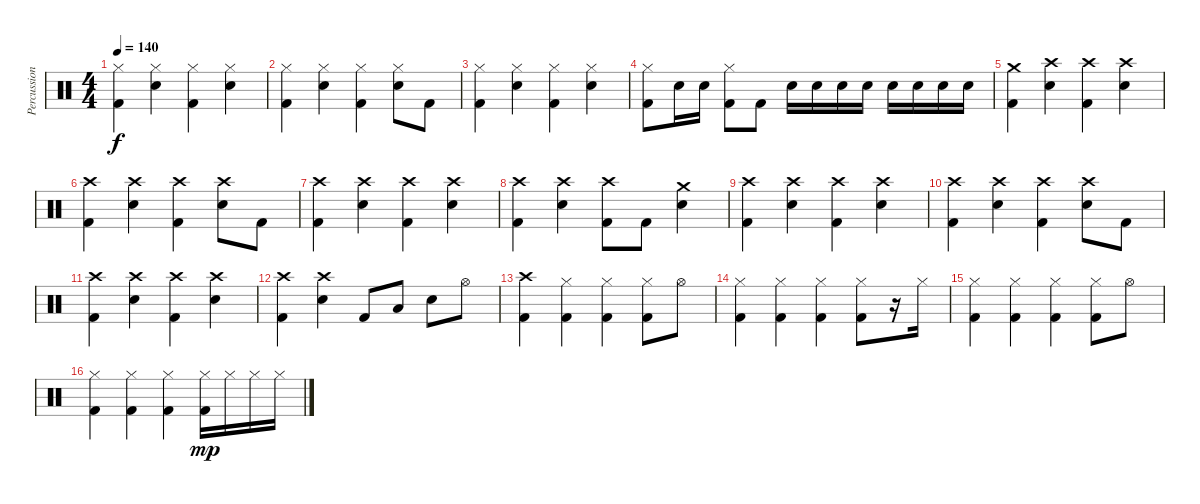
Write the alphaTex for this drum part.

\track ("Percussions" "Percussion") {instrument percussion}
\staff {score}
\articulation defaults
\ts (4 4)
\tempo 140
\clef neutral
\ks c
("Hi-Hat (closed)" "Kick (hit) 2").4{dy f} ("Hi-Hat (closed)" "Electric Snare (hit)").4 ("Hi-Hat (closed)" "Kick (hit) 2").4 ("Hi-Hat (closed)" "Electric Snare (hit)").4 |
("Hi-Hat (closed)" "Kick (hit) 2").4 ("Hi-Hat (closed)" "Electric Snare (hit)").4 ("Hi-Hat (closed)" "Kick (hit) 2").4 ("Hi-Hat (closed)" "Electric Snare (hit)").8 "Kick (hit) 2".8 |
("Hi-Hat (closed)" "Kick (hit) 2").4 ("Hi-Hat (closed)" "Electric Snare (hit)").4 ("Hi-Hat (closed)" "Kick (hit) 2").4 ("Hi-Hat (closed)" "Electric Snare (hit)").4 |
("Hi-Hat (closed)" "Kick (hit) 2").8 "Electric Snare (hit)".16 "Electric Snare (hit)".16 ("Hi-Hat (closed)" "Kick (hit) 2").8 "Kick (hit) 2".8 "Electric Snare (hit)".16 "Electric Snare (hit)".16 "Electric Snare (hit)".16 "Electric Snare (hit)".16 "Electric Snare (hit)".16 "Electric Snare (hit)".16 "Electric Snare (hit)".16 "Electric Snare (hit)".16 |
("Crash medium (hit)" "Kick (hit) 2").4 ("Crash high (hit)" "Electric Snare (hit)").4 ("Crash high (hit)" "Kick (hit) 2").4 ("Crash high (hit)" "Electric Snare (hit)").4 |
("Crash high (hit)" "Kick (hit) 2").4 ("Crash high (hit)" "Electric Snare (hit)").4 ("Crash high (hit)" "Kick (hit) 2").4 ("Crash high (hit)" "Electric Snare (hit)").8 "Kick (hit) 2".8 |
("Crash high (hit)" "Kick (hit) 2").4 ("Crash high (hit)" "Electric Snare (hit)").4 ("Crash high (hit)" "Kick (hit) 2").4 ("Crash high (hit)" "Electric Snare (hit)").4 |
("Crash high (hit)" "Kick (hit) 2").4 ("Crash high (hit)" "Electric Snare (hit)").4 ("Crash high (hit)" "Kick (hit) 2").8 "Kick (hit) 2".8 ("Crash medium (hit)" "Electric Snare (hit)").4 |
("Crash high (hit)" "Kick (hit) 2").4 ("Crash high (hit)" "Electric Snare (hit)").4 ("Crash high (hit)" "Kick (hit) 2").4 ("Crash high (hit)" "Electric Snare (hit)").4 |
("Crash high (hit)" "Kick (hit) 2").4 ("Crash high (hit)" "Electric Snare (hit)").4 ("Crash high (hit)" "Kick (hit) 2").4 ("Crash high (hit)" "Electric Snare (hit)").8 "Kick (hit) 2".8 |
("Crash high (hit)" "Kick (hit) 2").4 ("Crash high (hit)" "Electric Snare (hit)").4 ("Crash high (hit)" "Kick (hit) 2").4 ("Crash high (hit)" "Electric Snare (hit)").4 |
("Crash high (hit)" "Kick (hit) 2").4 ("Crash high (hit)" "Electric Snare (hit)").4 "Kick (hit) 2".8 "Low Tom (hit)".8 "Electric Snare (hit)".8 "Hi-Hat (open)".8 |
("Crash high (hit)" "Kick (hit) 2").4 ("Hi-Hat (closed)" "Kick (hit) 2").4 ("Hi-Hat (closed)" "Kick (hit) 2").4 ("Hi-Hat (closed)" "Kick (hit) 2").8 "Hi-Hat (open)".8 |
("Hi-Hat (closed)" "Kick (hit) 2").4 ("Hi-Hat (closed)" "Kick (hit) 2").4 ("Hi-Hat (closed)" "Kick (hit) 2").4 ("Hi-Hat (closed)" "Kick (hit) 2").8 r.16 "Hi-Hat (closed)".16 |
("Hi-Hat (closed)" "Kick (hit) 2").4 ("Hi-Hat (closed)" "Kick (hit) 2").4 ("Hi-Hat (closed)" "Kick (hit) 2").4 ("Hi-Hat (closed)" "Kick (hit) 2").8 "Hi-Hat (open)".8 |
("Hi-Hat (closed)" "Kick (hit) 2").4 ("Hi-Hat (closed)" "Kick (hit) 2").4 ("Hi-Hat (closed)" "Kick (hit) 2").4 ("Hi-Hat (closed)" "Kick (hit) 2").16{dy mp} "Hi-Hat (closed)".16 "Hi-Hat (closed)".16 "Hi-Hat (closed)".16
